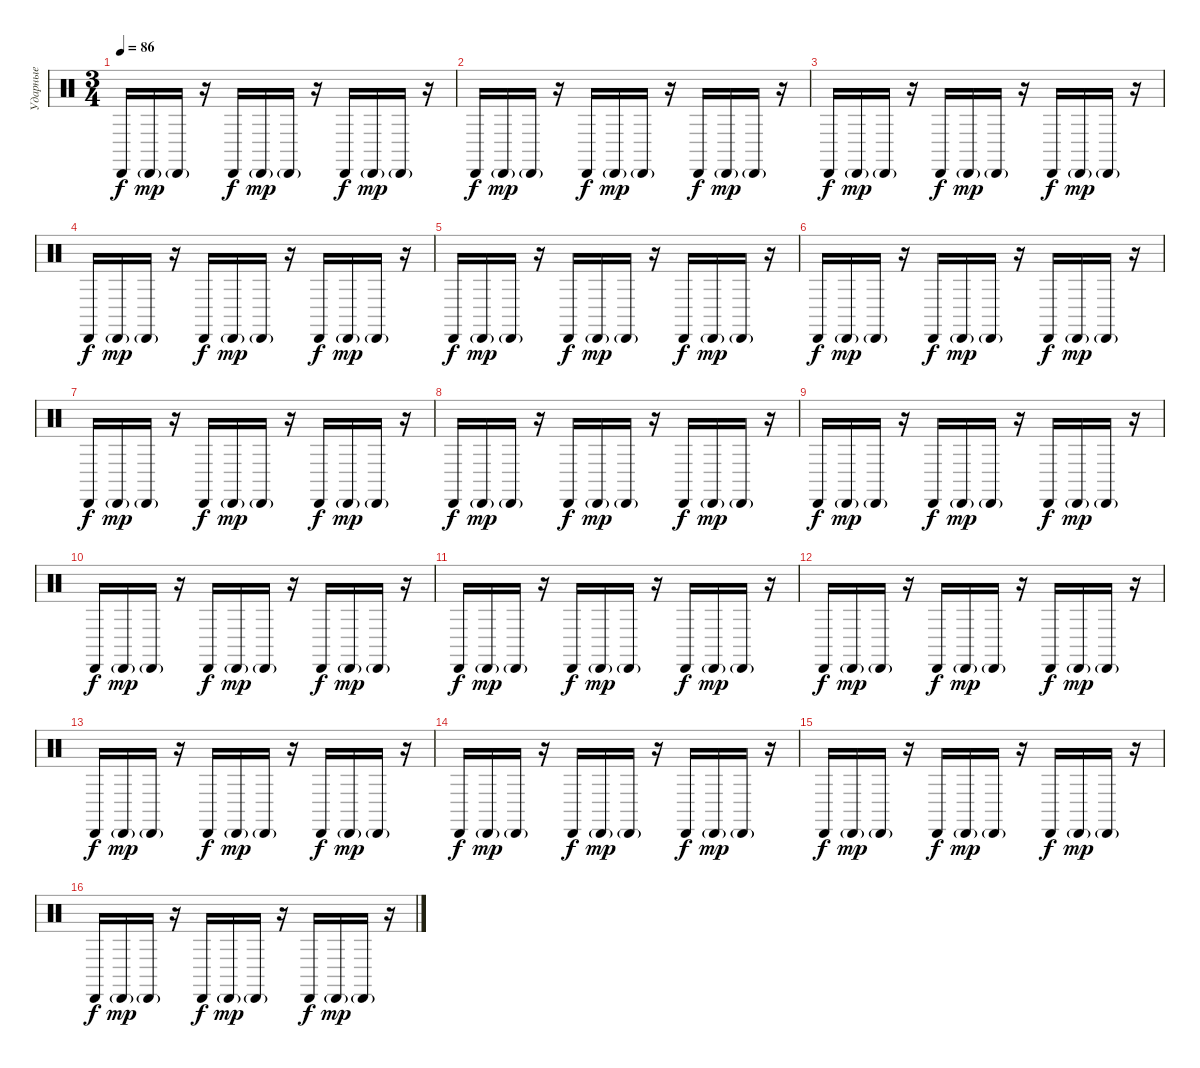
\track ("Ударные" "Ударные") {instrument percussion}
\staff {score}
\articulation defaults
\ts (3 4)
\tempo 86
\clef neutral
\ks c "Cabasa (hit)".16{dy f} "Cabasa (hit)"{g}.16{dy mp} "Cabasa (hit)"{g}.16
r.16 "Cabasa (hit)".16{dy f} "Cabasa (hit)"{g}.16{dy mp} "Cabasa (hit)"{g}.16 r.16 "Cabasa (hit)".16{dy f} "Cabasa (hit)"{g}.16{dy mp} "Cabasa (hit)"{g}.16 r.16 |
"Cabasa (hit)".16{dy f} "Cabasa (hit)"{g}.16{dy mp} "Cabasa (hit)"{g}.16 r.16 "Cabasa (hit)".16{dy f} "Cabasa (hit)"{g}.16{dy mp} "Cabasa (hit)"{g}.16 r.16 "Cabasa (hit)".16{dy f} "Cabasa (hit)"{g}.16{dy mp} "Cabasa (hit)"{g}.16 r.16 |
"Cabasa (hit)".16{dy f} "Cabasa (hit)"{g}.16{dy mp} "Cabasa (hit)"{g}.16 r.16 "Cabasa (hit)".16{dy f} "Cabasa (hit)"{g}.16{dy mp} "Cabasa (hit)"{g}.16 r.16 "Cabasa (hit)".16{dy f} "Cabasa (hit)"{g}.16{dy mp} "Cabasa (hit)"{g}.16 r.16 |
"Cabasa (hit)".16{dy f} "Cabasa (hit)"{g}.16{dy mp} "Cabasa (hit)"{g}.16 r.16 "Cabasa (hit)".16{dy f} "Cabasa (hit)"{g}.16{dy mp} "Cabasa (hit)"{g}.16 r.16 "Cabasa (hit)".16{dy f} "Cabasa (hit)"{g}.16{dy mp} "Cabasa (hit)"{g}.16 r.16 |
"Cabasa (hit)".16{dy f} "Cabasa (hit)"{g}.16{dy mp} "Cabasa (hit)"{g}.16 r.16 "Cabasa (hit)".16{dy f} "Cabasa (hit)"{g}.16{dy mp} "Cabasa (hit)"{g}.16 r.16 "Cabasa (hit)".16{dy f} "Cabasa (hit)"{g}.16{dy mp} "Cabasa (hit)"{g}.16 r.16 |
"Cabasa (hit)".16{dy f} "Cabasa (hit)"{g}.16{dy mp} "Cabasa (hit)"{g}.16 r.16 "Cabasa (hit)".16{dy f} "Cabasa (hit)"{g}.16{dy mp} "Cabasa (hit)"{g}.16 r.16 "Cabasa (hit)".16{dy f} "Cabasa (hit)"{g}.16{dy mp} "Cabasa (hit)"{g}.16 r.16 |
"Cabasa (hit)".16{dy f} "Cabasa (hit)"{g}.16{dy mp} "Cabasa (hit)"{g}.16 r.16 "Cabasa (hit)".16{dy f} "Cabasa (hit)"{g}.16{dy mp} "Cabasa (hit)"{g}.16 r.16 "Cabasa (hit)".16{dy f} "Cabasa (hit)"{g}.16{dy mp} "Cabasa (hit)"{g}.16 r.16 |
"Cabasa (hit)".16{dy f} "Cabasa (hit)"{g}.16{dy mp} "Cabasa (hit)"{g}.16 r.16 "Cabasa (hit)".16{dy f} "Cabasa (hit)"{g}.16{dy mp} "Cabasa (hit)"{g}.16 r.16 "Cabasa (hit)".16{dy f} "Cabasa (hit)"{g}.16{dy mp} "Cabasa (hit)"{g}.16 r.16 |
"Cabasa (hit)".16{dy f} "Cabasa (hit)"{g}.16{dy mp} "Cabasa (hit)"{g}.16 r.16 "Cabasa (hit)".16{dy f} "Cabasa (hit)"{g}.16{dy mp} "Cabasa (hit)"{g}.16 r.16 "Cabasa (hit)".16{dy f} "Cabasa (hit)"{g}.16{dy mp} "Cabasa (hit)"{g}.16 r.16 |
"Cabasa (hit)".16{dy f} "Cabasa (hit)"{g}.16{dy mp} "Cabasa (hit)"{g}.16 r.16 "Cabasa (hit)".16{dy f} "Cabasa (hit)"{g}.16{dy mp} "Cabasa (hit)"{g}.16 r.16 "Cabasa (hit)".16{dy f} "Cabasa (hit)"{g}.16{dy mp} "Cabasa (hit)"{g}.16 r.16 |
"Cabasa (hit)".16{dy f} "Cabasa (hit)"{g}.16{dy mp} "Cabasa (hit)"{g}.16 r.16 "Cabasa (hit)".16{dy f} "Cabasa (hit)"{g}.16{dy mp} "Cabasa (hit)"{g}.16 r.16 "Cabasa (hit)".16{dy f} "Cabasa (hit)"{g}.16{dy mp} "Cabasa (hit)"{g}.16 r.16 |
"Cabasa (hit)".16{dy f} "Cabasa (hit)"{g}.16{dy mp} "Cabasa (hit)"{g}.16 r.16 "Cabasa (hit)".16{dy f} "Cabasa (hit)"{g}.16{dy mp} "Cabasa (hit)"{g}.16 r.16 "Cabasa (hit)".16{dy f} "Cabasa (hit)"{g}.16{dy mp} "Cabasa (hit)"{g}.16 r.16 |
"Cabasa (hit)".16{dy f} "Cabasa (hit)"{g}.16{dy mp} "Cabasa (hit)"{g}.16 r.16 "Cabasa (hit)".16{dy f} "Cabasa (hit)"{g}.16{dy mp} "Cabasa (hit)"{g}.16 r.16 "Cabasa (hit)".16{dy f} "Cabasa (hit)"{g}.16{dy mp} "Cabasa (hit)"{g}.16 r.16 |
"Cabasa (hit)".16{dy f} "Cabasa (hit)"{g}.16{dy mp} "Cabasa (hit)"{g}.16 r.16 "Cabasa (hit)".16{dy f} "Cabasa (hit)"{g}.16{dy mp} "Cabasa (hit)"{g}.16 r.16 "Cabasa (hit)".16{dy f} "Cabasa (hit)"{g}.16{dy mp} "Cabasa (hit)"{g}.16 r.16 |
"Cabasa (hit)".16{dy f} "Cabasa (hit)"{g}.16{dy mp} "Cabasa (hit)"{g}.16 r.16 "Cabasa (hit)".16{dy f} "Cabasa (hit)"{g}.16{dy mp} "Cabasa (hit)"{g}.16 r.16 "Cabasa (hit)".16{dy f} "Cabasa (hit)"{g}.16{dy mp} "Cabasa (hit)"{g}.16 r.16 |
"Cabasa (hit)".16{dy f} "Cabasa (hit)"{g}.16{dy mp} "Cabasa (hit)"{g}.16 r.16 "Cabasa (hit)".16{dy f} "Cabasa (hit)"{g}.16{dy mp} "Cabasa (hit)"{g}.16 r.16 "Cabasa (hit)".16{dy f} "Cabasa (hit)"{g}.16{dy mp} "Cabasa (hit)"{g}.16 r.16
